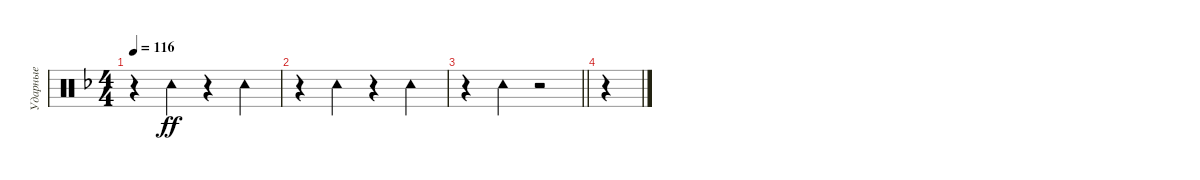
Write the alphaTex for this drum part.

\track ("Ударные" "Ударные") {instrument percussion}
\staff {score}
\articulation defaults
\ts (4 4)
\tempo 116
\clef neutral
\ks dminor
r.4{dy ff} "Tambourine (hit)".4 r.4 "Tambourine (hit)".4 |
r.4 "Tambourine (hit)".4 r.4 "Tambourine (hit)".4 |
\barLineRight lightlight
r.4 "Tambourine (hit)".4 r.2 |
r.4
